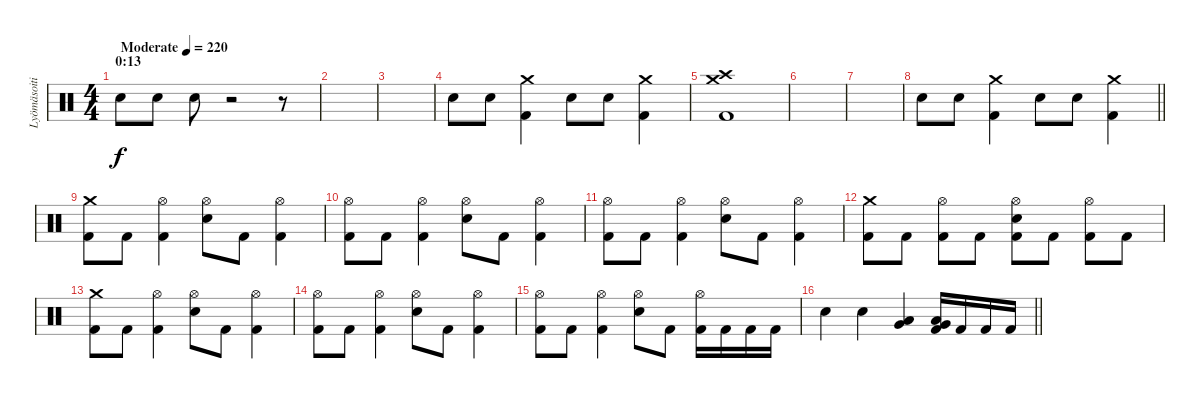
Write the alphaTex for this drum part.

\track ("Lyömäsoitin" "Lyömäsoiti") {instrument percussion}
\staff {score}
\articulation defaults
\ts (4 4)
\section ("" "0:13")
\tempo (220 "Moderate")
\clef neutral
\ks c "Electric Snare (hit)".8{dy f} "Electric Snare (hit)".8 "Electric Snare (hit)".8
r.2 r.8 |
|
|
"Electric Snare (hit)".8 "Electric Snare (hit)".8 ("Crash medium (hit)" "Kick (hit) 2").4 "Electric Snare (hit)".8 "Electric Snare (hit)".8 ("Crash medium (hit)" "Kick (hit) 2").4 |
("Crash medium (hit)" "Crash high (hit)" "Kick (hit) 2").1 |
|
|
\barLineRight lightlight "Electric Snare (hit)".8 "Electric Snare (hit)".8
("Crash medium (hit)" "Kick (hit) 2").4 "Electric Snare (hit)".8 "Electric Snare (hit)".8 ("Crash medium (hit)" "Kick (hit) 2").4 |
\section ("" "")
("Crash medium (hit)" "Kick (hit) 2").8 "Kick (hit) 2".8 ("Hi-Hat (open)" "Kick (hit) 2").4 ("Hi-Hat (open)" "Electric Snare (hit)").8 "Kick (hit) 2".8 ("Hi-Hat (open)" "Kick (hit) 2").4 |
("Hi-Hat (open)" "Kick (hit) 2").8 "Kick (hit) 2".8 ("Hi-Hat (open)" "Kick (hit) 2").4 ("Hi-Hat (open)" "Electric Snare (hit)").8 "Kick (hit) 2".8 ("Hi-Hat (open)" "Kick (hit) 2").4 |
("Hi-Hat (open)" "Kick (hit) 2").8 "Kick (hit) 2".8 ("Hi-Hat (open)" "Kick (hit) 2").4 ("Hi-Hat (open)" "Electric Snare (hit)").8 "Kick (hit) 2".8 ("Hi-Hat (open)" "Kick (hit) 2").4 |
("Crash medium (hit)" "Kick (hit) 2").8 "Kick (hit) 2".8 ("Hi-Hat (open)" "Kick (hit) 2").8 "Kick (hit) 2".8 ("Hi-Hat (open)" "Electric Snare (hit)" "Kick (hit) 2").8 "Kick (hit) 2".8 ("Hi-Hat (open)" "Kick (hit) 2").8 "Kick (hit) 2".8 |
("Crash medium (hit)" "Kick (hit) 2").8 "Kick (hit) 2".8 ("Hi-Hat (open)" "Kick (hit) 2").4 ("Hi-Hat (open)" "Electric Snare (hit)").8 "Kick (hit) 2".8 ("Hi-Hat (open)" "Kick (hit) 2").4 |
("Hi-Hat (open)" "Kick (hit) 2").8 "Kick (hit) 2".8 ("Hi-Hat (open)" "Kick (hit) 2").4 ("Hi-Hat (open)" "Electric Snare (hit)").8 "Kick (hit) 2".8 ("Hi-Hat (open)" "Kick (hit) 2").4 |
("Hi-Hat (open)" "Kick (hit) 2").8 "Kick (hit) 2".8 ("Hi-Hat (open)" "Kick (hit) 2").4 ("Hi-Hat (open)" "Electric Snare (hit)").8 "Kick (hit) 2".8 ("Hi-Hat (open)" "Kick (hit) 2").16 "Kick (hit) 2".16 "Kick (hit) 2".16 "Kick (hit) 2".16 |
\barLineRight lightlight "Electric Snare (hit)".4 "Electric Snare (hit)".4
("Low Tom (hit)" "Very Low Tom (hit)").4 ("Low Tom (hit)" "Very Low Tom (hit)" "Kick (hit) 2").16 "Kick (hit) 2".16 "Kick (hit) 2".16 "Kick (hit) 2".16
